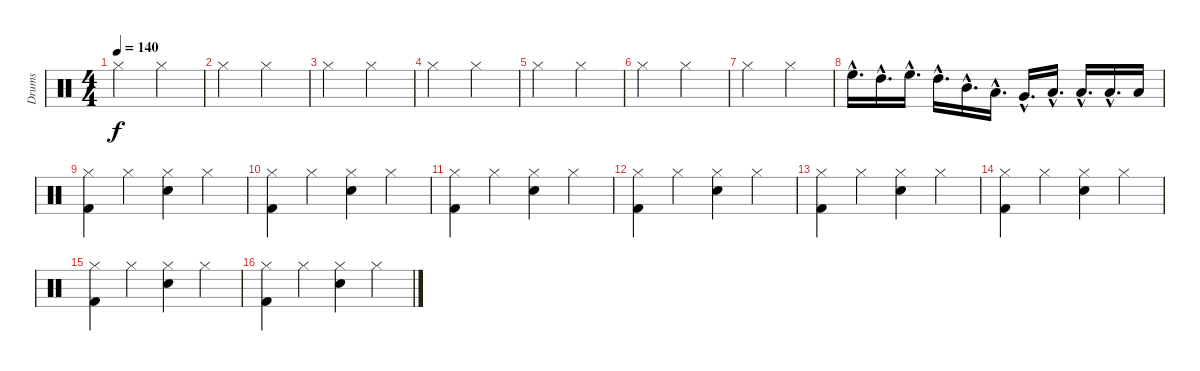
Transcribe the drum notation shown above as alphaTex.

\track ("Drums" "Drums") {instrument percussion}
\staff {score}
\articulation defaults
\ts (4 4)
\tempo 140
\clef neutral
\ks c "Hi-Hat (closed)".2{dy f} "Hi-Hat (closed)".2
|
"Hi-Hat (closed)".2 "Hi-Hat (closed)".2 |
"Hi-Hat (closed)".2 "Hi-Hat (closed)".2 |
"Hi-Hat (closed)".2 "Hi-Hat (closed)".2 |
"Hi-Hat (closed)".2 "Hi-Hat (closed)".2 |
"Hi-Hat (closed)".2 "Hi-Hat (closed)".2 |
"Hi-Hat (closed)".2 "Hi-Hat (closed)".2 |
"High Floor Tom (hit)"{hac}.16{d} "High Tom (hit)"{hac}.16{d} "High Floor Tom (hit)"{hac}.16{d} "High Tom (hit)"{hac}.16{d} "Mid Tom (hit)"{hac}.16{d} "Low Tom (hit)"{hac}.16{d} "Very Low Tom (hit)"{hac}.16{d} "Low Floor Tom (hit)"{hac}.16{d} "Low Floor Tom (hit)"{hac}.16{d} "Low Floor Tom (hit)"{hac}.16{d} "Low Floor Tom (hit)".16 |
("Hi-Hat (closed)" "Kick (hit) 2").4 "Hi-Hat (closed)".4 ("Hi-Hat (closed)" "Electric Snare (hit)").4 "Hi-Hat (closed)".4 |
("Hi-Hat (closed)" "Kick (hit) 2").4 "Hi-Hat (closed)".4 ("Hi-Hat (closed)" "Electric Snare (hit)").4 "Hi-Hat (closed)".4 |
("Hi-Hat (closed)" "Kick (hit) 2").4 "Hi-Hat (closed)".4 ("Hi-Hat (closed)" "Electric Snare (hit)").4 "Hi-Hat (closed)".4 |
("Hi-Hat (closed)" "Kick (hit) 2").4 "Hi-Hat (closed)".4 ("Hi-Hat (closed)" "Electric Snare (hit)").4 "Hi-Hat (closed)".4 |
("Hi-Hat (closed)" "Kick (hit) 2").4 "Hi-Hat (closed)".4 ("Hi-Hat (closed)" "Electric Snare (hit)").4 "Hi-Hat (closed)".4 |
("Hi-Hat (closed)" "Kick (hit) 2").4 "Hi-Hat (closed)".4 ("Hi-Hat (closed)" "Electric Snare (hit)").4 "Hi-Hat (closed)".4 |
("Hi-Hat (closed)" "Kick (hit) 2").4 "Hi-Hat (closed)".4 ("Hi-Hat (closed)" "Electric Snare (hit)").4 "Hi-Hat (closed)".4 |
("Hi-Hat (closed)" "Kick (hit) 2").4 "Hi-Hat (closed)".4 ("Hi-Hat (closed)" "Electric Snare (hit)").4 "Hi-Hat (closed)".4
